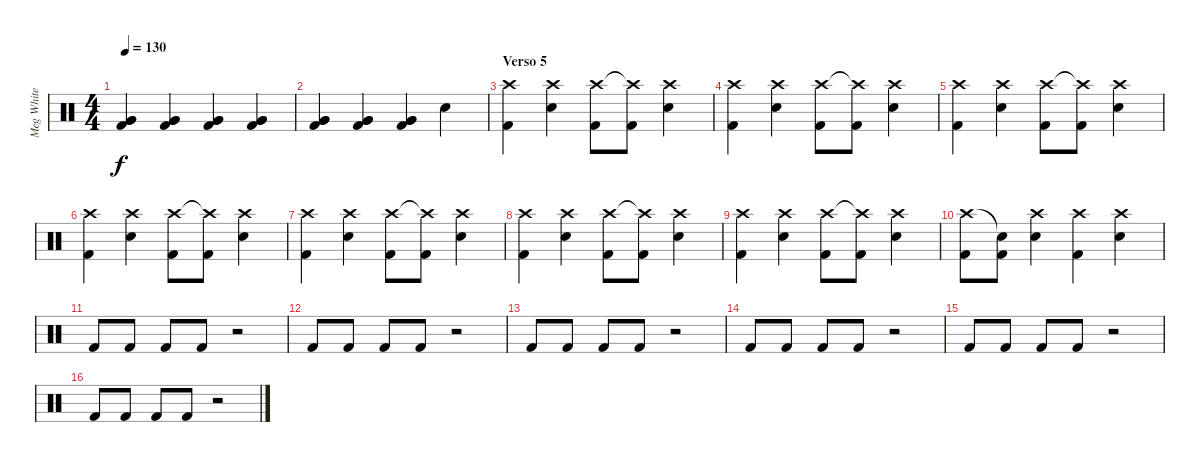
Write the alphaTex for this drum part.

\track ("Meg White" "Meg White") {instrument percussion}
\staff {score}
\articulation defaults
\ts (4 4)
\tempo 130
\clef neutral
\ks c
("Very Low Tom (hit)" "Kick (hit) 2" "Very Low Tom (hit)").4{dy f} ("Very Low Tom (hit)" "Kick (hit) 2" "Very Low Tom (hit)").4 ("Very Low Tom (hit)" "Kick (hit) 2" "Very Low Tom (hit)").4 ("Very Low Tom (hit)" "Kick (hit) 2" "Very Low Tom (hit)").4 |
("Very Low Tom (hit)" "Kick (hit) 2" "Very Low Tom (hit)").4 ("Very Low Tom (hit)" "Kick (hit) 2" "Very Low Tom (hit)").4 ("Very Low Tom (hit)" "Kick (hit) 2" "Very Low Tom (hit)").4 "Snare (hit) 2".4 |
\section ("" "Verso 5")
("Crash high (hit)" "Kick (hit) 2").4 ("Crash high (hit)" "Snare (hit) 2").4 ("Crash high (hit)" "Kick (hit) 2").8 ("Crash high (hit)"{t} "Kick (hit) 2").8 ("Crash high (hit)" "Snare (hit) 2").4 |
("Crash high (hit)" "Kick (hit) 2").4 ("Crash high (hit)" "Snare (hit) 2").4 ("Crash high (hit)" "Kick (hit) 2").8 ("Crash high (hit)"{t} "Kick (hit) 2").8 ("Crash high (hit)" "Snare (hit) 2").4 |
("Crash high (hit)" "Kick (hit) 2").4 ("Crash high (hit)" "Snare (hit) 2").4 ("Crash high (hit)" "Kick (hit) 2").8 ("Crash high (hit)"{t} "Kick (hit) 2").8 ("Crash high (hit)" "Snare (hit) 2").4 |
("Crash high (hit)" "Kick (hit) 2").4 ("Crash high (hit)" "Snare (hit) 2").4 ("Crash high (hit)" "Kick (hit) 2").8 ("Crash high (hit)"{t} "Kick (hit) 2").8 ("Crash high (hit)" "Snare (hit) 2").4 |
("Crash high (hit)" "Kick (hit) 2").4 ("Crash high (hit)" "Snare (hit) 2").4 ("Crash high (hit)" "Kick (hit) 2").8 ("Crash high (hit)"{t} "Kick (hit) 2").8 ("Crash high (hit)" "Snare (hit) 2").4 |
("Crash high (hit)" "Kick (hit) 2").4 ("Crash high (hit)" "Snare (hit) 2").4 ("Crash high (hit)" "Kick (hit) 2").8 ("Crash high (hit)"{t} "Kick (hit) 2").8 ("Crash high (hit)" "Snare (hit) 2").4 |
("Crash high (hit)" "Kick (hit) 2").4 ("Crash high (hit)" "Snare (hit) 2").4 ("Crash high (hit)" "Kick (hit) 2").8 ("Crash high (hit)"{t} "Kick (hit) 2").8 ("Crash high (hit)" "Snare (hit) 2").4 |
("Crash high (hit)" "Kick (hit) 2").8 ("Snare (hit)"{t} "Kick (hit) 2").8 ("Crash high (hit)" "Snare (hit) 2").4 ("Crash high (hit)" "Kick (hit) 2").4 ("Crash high (hit)" "Snare (hit) 2").4 |
"Kick (hit) 2".8 "Kick (hit) 2".8 "Kick (hit) 2".8 "Kick (hit) 2".8 r.2 |
"Kick (hit) 2".8 "Kick (hit) 2".8 "Kick (hit) 2".8 "Kick (hit) 2".8 r.2 |
"Kick (hit) 2".8 "Kick (hit) 2".8 "Kick (hit) 2".8 "Kick (hit) 2".8 r.2 |
"Kick (hit) 2".8 "Kick (hit) 2".8 "Kick (hit) 2".8 "Kick (hit) 2".8 r.2 |
"Kick (hit) 2".8 "Kick (hit) 2".8 "Kick (hit) 2".8 "Kick (hit) 2".8 r.2 |
"Kick (hit) 2".8 "Kick (hit) 2".8 "Kick (hit) 2".8 "Kick (hit) 2".8 r.2
